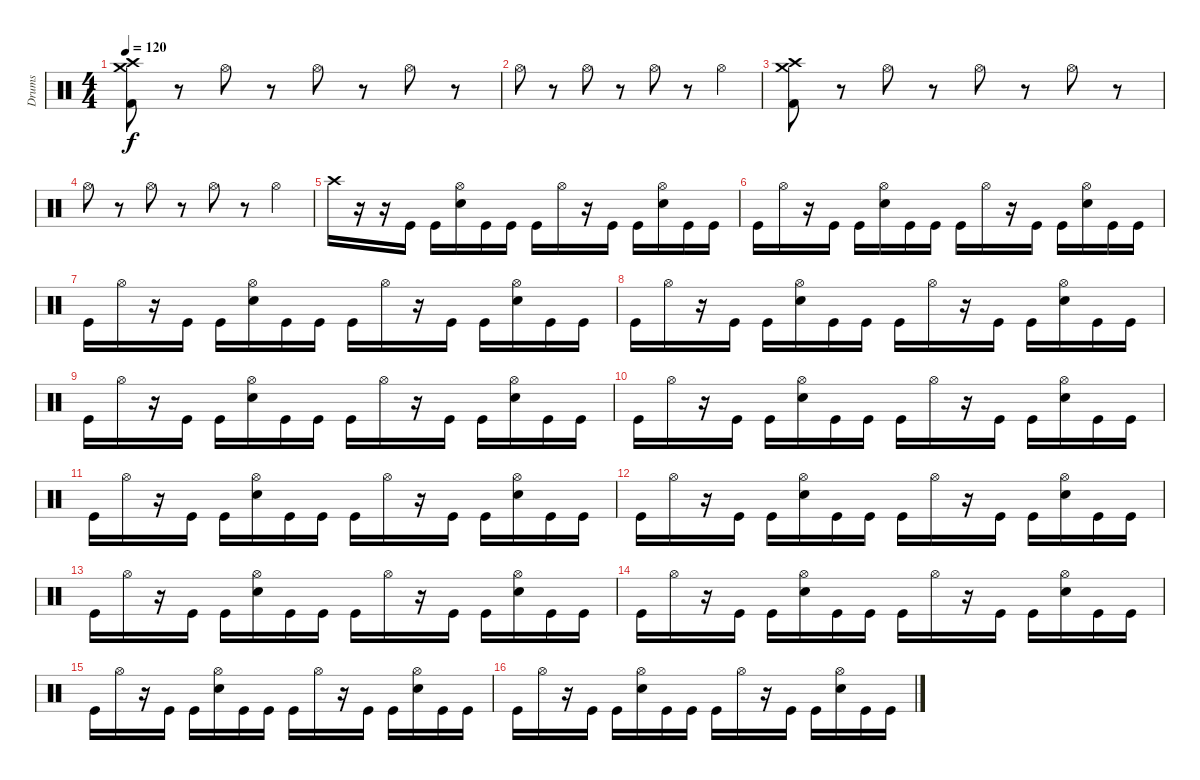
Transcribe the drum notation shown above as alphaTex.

\track ("Drums" "Drums") {instrument percussion}
\staff {score}
\articulation defaults
\ts (4 4)
\tempo 120
\clef neutral
\ks c
("Crash medium (hit)" "Crash high (hit)" "Kick (hit) 2").8{dy f} r.8 "Hi-Hat (open)".8 r.8 "Hi-Hat (open)".8 r.8 "Hi-Hat (open)".8 r.8 |
"Hi-Hat (open)".8 r.8 "Hi-Hat (open)".8 r.8 "Hi-Hat (open)".8 r.8 "Hi-Hat (open)".4 |
("Crash medium (hit)" "Crash high (hit)" "Kick (hit) 2").8 r.8 "Hi-Hat (open)".8 r.8 "Hi-Hat (open)".8 r.8 "Hi-Hat (open)".8 r.8 |
"Hi-Hat (open)".8 r.8 "Hi-Hat (open)".8 r.8 "Hi-Hat (open)".8 r.8 "Hi-Hat (open)".4 |
"Crash high (hit)".16 r.16 r.16 "Kick (hit)".16 "Kick (hit)".16 ("Hi-Hat (open)" "Snare (hit) 2").16 "Kick (hit)".16 "Kick (hit)".16 "Kick (hit)".16 "Hi-Hat (open)".16 r.16 "Kick (hit)".16 "Kick (hit)".16 ("Hi-Hat (open)" "Snare (hit) 2").16 "Kick (hit)".16 "Kick (hit)".16 |
"Kick (hit)".16 "Hi-Hat (open)".16 r.16 "Kick (hit)".16 "Kick (hit)".16 ("Hi-Hat (open)" "Snare (hit) 2").16 "Kick (hit)".16 "Kick (hit)".16 "Kick (hit)".16 "Hi-Hat (open)".16 r.16 "Kick (hit)".16 "Kick (hit)".16 ("Hi-Hat (open)" "Snare (hit) 2").16 "Kick (hit)".16 "Kick (hit)".16 |
"Kick (hit)".16 "Hi-Hat (open)".16 r.16 "Kick (hit)".16 "Kick (hit)".16 ("Hi-Hat (open)" "Snare (hit) 2").16 "Kick (hit)".16 "Kick (hit)".16 "Kick (hit)".16 "Hi-Hat (open)".16 r.16 "Kick (hit)".16 "Kick (hit)".16 ("Hi-Hat (open)" "Snare (hit) 2").16 "Kick (hit)".16 "Kick (hit)".16 |
"Kick (hit)".16 "Hi-Hat (open)".16 r.16 "Kick (hit)".16 "Kick (hit)".16 ("Hi-Hat (open)" "Snare (hit) 2").16 "Kick (hit)".16 "Kick (hit)".16 "Kick (hit)".16 "Hi-Hat (open)".16 r.16 "Kick (hit)".16 "Kick (hit)".16 ("Hi-Hat (open)" "Snare (hit) 2").16 "Kick (hit)".16 "Kick (hit)".16 |
"Kick (hit)".16 "Hi-Hat (open)".16 r.16 "Kick (hit)".16 "Kick (hit)".16 ("Hi-Hat (open)" "Snare (hit) 2").16 "Kick (hit)".16 "Kick (hit)".16 "Kick (hit)".16 "Hi-Hat (open)".16 r.16 "Kick (hit)".16 "Kick (hit)".16 ("Hi-Hat (open)" "Snare (hit) 2").16 "Kick (hit)".16 "Kick (hit)".16 |
"Kick (hit)".16 "Hi-Hat (open)".16 r.16 "Kick (hit)".16 "Kick (hit)".16 ("Hi-Hat (open)" "Snare (hit) 2").16 "Kick (hit)".16 "Kick (hit)".16 "Kick (hit)".16 "Hi-Hat (open)".16 r.16 "Kick (hit)".16 "Kick (hit)".16 ("Hi-Hat (open)" "Snare (hit) 2").16 "Kick (hit)".16 "Kick (hit)".16 |
"Kick (hit)".16 "Hi-Hat (open)".16 r.16 "Kick (hit)".16 "Kick (hit)".16 ("Hi-Hat (open)" "Snare (hit) 2").16 "Kick (hit)".16 "Kick (hit)".16 "Kick (hit)".16 "Hi-Hat (open)".16 r.16 "Kick (hit)".16 "Kick (hit)".16 ("Hi-Hat (open)" "Snare (hit) 2").16 "Kick (hit)".16 "Kick (hit)".16 |
"Kick (hit)".16 "Hi-Hat (open)".16 r.16 "Kick (hit)".16 "Kick (hit)".16 ("Hi-Hat (open)" "Snare (hit) 2").16 "Kick (hit)".16 "Kick (hit)".16 "Kick (hit)".16 "Hi-Hat (open)".16 r.16 "Kick (hit)".16 "Kick (hit)".16 ("Hi-Hat (open)" "Snare (hit) 2").16 "Kick (hit)".16 "Kick (hit)".16 |
"Kick (hit)".16 "Hi-Hat (open)".16 r.16 "Kick (hit)".16 "Kick (hit)".16 ("Hi-Hat (open)" "Snare (hit) 2").16 "Kick (hit)".16 "Kick (hit)".16 "Kick (hit)".16 "Hi-Hat (open)".16 r.16 "Kick (hit)".16 "Kick (hit)".16 ("Hi-Hat (open)" "Snare (hit) 2").16 "Kick (hit)".16 "Kick (hit)".16 |
"Kick (hit)".16 "Hi-Hat (open)".16 r.16 "Kick (hit)".16 "Kick (hit)".16 ("Hi-Hat (open)" "Snare (hit) 2").16 "Kick (hit)".16 "Kick (hit)".16 "Kick (hit)".16 "Hi-Hat (open)".16 r.16 "Kick (hit)".16 "Kick (hit)".16 ("Hi-Hat (open)" "Snare (hit) 2").16 "Kick (hit)".16 "Kick (hit)".16 |
"Kick (hit)".16 "Hi-Hat (open)".16 r.16 "Kick (hit)".16 "Kick (hit)".16 ("Hi-Hat (open)" "Snare (hit) 2").16 "Kick (hit)".16 "Kick (hit)".16 "Kick (hit)".16 "Hi-Hat (open)".16 r.16 "Kick (hit)".16 "Kick (hit)".16 ("Hi-Hat (open)" "Snare (hit) 2").16 "Kick (hit)".16 "Kick (hit)".16 |
"Kick (hit)".16 "Hi-Hat (open)".16 r.16 "Kick (hit)".16 "Kick (hit)".16 ("Hi-Hat (open)" "Snare (hit) 2").16 "Kick (hit)".16 "Kick (hit)".16 "Kick (hit)".16 "Hi-Hat (open)".16 r.16 "Kick (hit)".16 "Kick (hit)".16 ("Hi-Hat (open)" "Snare (hit) 2").16 "Kick (hit)".16 "Kick (hit)".16
